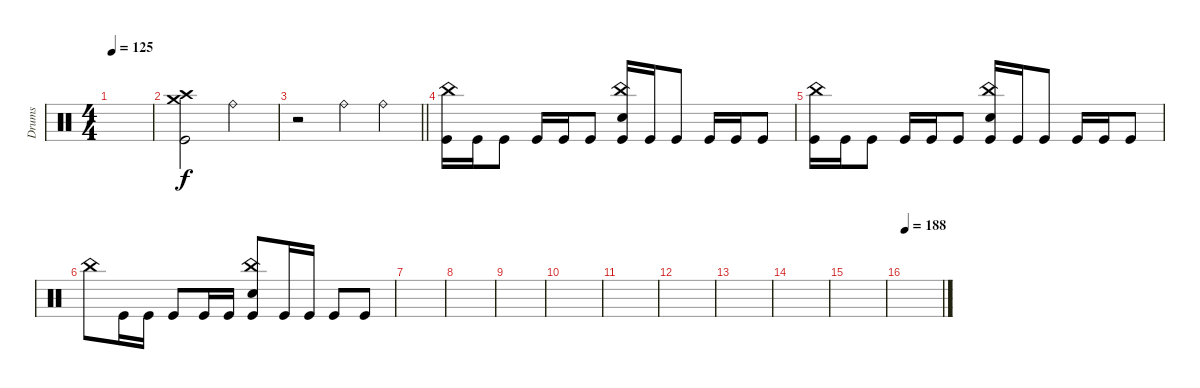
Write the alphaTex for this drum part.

\track ("Drums" "Drums") {instrument percussion}
\staff
\articulation defaults
\ts (4 4)
\tempo 125
\clef neutral
\ks c
|
("Crash high (hit)" "Crash medium (hit)" "Kick (hit)").2 "Ride (bell)".2 |
\barLineRight lightlight
r.2 "Ride (bell)".4 "Ride (bell)".4 |
\section ("" "")
("China (hit)" "Kick (hit)").16 "Kick (hit)".16 "Kick (hit)".8 "Kick (hit)".16 "Kick (hit)".16 "Kick (hit)".8 ("China (hit)" "Electric Snare (hit)" "Kick (hit)").16 "Kick (hit)".16 "Kick (hit)".8 "Kick (hit)".16 "Kick (hit)".16 "Kick (hit)".8 |
("China (hit)" "Kick (hit)").16 "Kick (hit)".16 "Kick (hit)".8 "Kick (hit)".16 "Kick (hit)".16 "Kick (hit)".8 ("China (hit)" "Electric Snare (hit)" "Kick (hit)").16 "Kick (hit)".16 "Kick (hit)".8 "Kick (hit)".16 "Kick (hit)".16 "Kick (hit)".8 |
"China (hit)".8 "Kick (hit)".16 "Kick (hit)".16 "Kick (hit)".8 "Kick (hit)".16 "Kick (hit)".16 ("China (hit)" "Electric Snare (hit)" "Kick (hit)").8 "Kick (hit)".16 "Kick (hit)".16 "Kick (hit)".8 "Kick (hit)".8 |
|
|
|
|
|
|
|
|
|
\tempo 188
